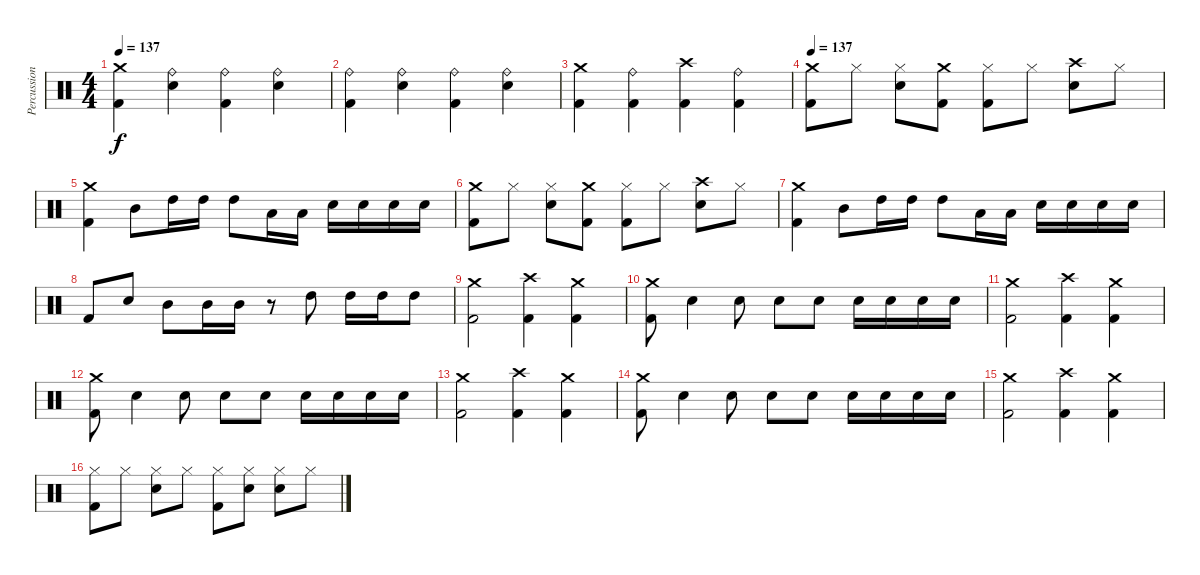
\track ("Percussions" "Percussion") {instrument percussion}
\staff {score}
\articulation defaults
\ts (4 4)
\tempo 137
\clef neutral
\ks c
("Crash medium (hit)" "Kick (hit) 2").4{dy f} ("Ride (bell)" "Electric Snare (hit)").4 ("Ride (bell)" "Kick (hit) 2").4 ("Ride (bell)" "Electric Snare (hit)").4 |
("Ride (bell)" "Kick (hit) 2").4 ("Ride (bell)" "Electric Snare (hit)").4 ("Ride (bell)" "Kick (hit) 2").4 ("Ride (bell)" "Electric Snare (hit)").4 |
("Crash medium (hit)" "Kick (hit) 2").4 ("Ride (bell)" "Kick (hit) 2").4 ("Crash high (hit)" "Kick (hit) 2").4 ("Ride (bell)" "Kick (hit) 2").4 |
\tempo 137
("Crash medium (hit)" "Kick (hit) 2").8 "Hi-Hat (closed)".8 ("Hi-Hat (closed)" "Electric Snare (hit)").8 ("Crash medium (hit)" "Kick (hit) 2").8 ("Hi-Hat (closed)" "Kick (hit) 2").8 "Hi-Hat (closed)".8 ("Crash high (hit)" "Electric Snare (hit)").8 "Hi-Hat (closed)".8 |
("Crash medium (hit)" "Kick (hit) 2").4 "Mid Tom (hit)".8 "High Tom (hit)".16 "High Tom (hit)".16 "High Tom (hit)".8 "Low Tom (hit)".16 "Low Tom (hit)".16 "Electric Snare (hit)".16 "Electric Snare (hit)".16 "Electric Snare (hit)".16 "Electric Snare (hit)".16 |
("Crash medium (hit)" "Kick (hit) 2").8 "Hi-Hat (closed)".8 ("Hi-Hat (closed)" "Electric Snare (hit)").8 ("Crash medium (hit)" "Kick (hit) 2").8 ("Hi-Hat (closed)" "Kick (hit) 2").8 "Hi-Hat (closed)".8 ("Crash high (hit)" "Electric Snare (hit)").8 "Hi-Hat (closed)".8 |
("Crash medium (hit)" "Kick (hit) 2").4 "Mid Tom (hit)".8 "High Tom (hit)".16 "High Tom (hit)".16 "High Tom (hit)".8 "Low Tom (hit)".16 "Low Tom (hit)".16 "Electric Snare (hit)".16 "Electric Snare (hit)".16 "Electric Snare (hit)".16 "Electric Snare (hit)".16 |
"Kick (hit) 2".8 "Electric Snare (hit)".8 "Mid Tom (hit)".8 "Mid Tom (hit)".16 "Mid Tom (hit)".16 r.8 "High Tom (hit)".8 "High Tom (hit)".16 "High Tom (hit)".16 "High Tom (hit)".8 |
("Crash medium (hit)" "Kick (hit) 2").2 ("Crash high (hit)" "Kick (hit) 2").4 ("Crash medium (hit)" "Kick (hit) 2").4 |
("Crash medium (hit)" "Kick (hit) 2").8 "Electric Snare (hit)".4 "Electric Snare (hit)".8 "Electric Snare (hit)".8 "Electric Snare (hit)".8 "Electric Snare (hit)".16 "Electric Snare (hit)".16 "Electric Snare (hit)".16 "Electric Snare (hit)".16 |
("Crash medium (hit)" "Kick (hit) 2").2 ("Crash high (hit)" "Kick (hit) 2").4 ("Crash medium (hit)" "Kick (hit) 2").4 |
("Crash medium (hit)" "Kick (hit) 2").8 "Electric Snare (hit)".4 "Electric Snare (hit)".8 "Electric Snare (hit)".8 "Electric Snare (hit)".8 "Electric Snare (hit)".16 "Electric Snare (hit)".16 "Electric Snare (hit)".16 "Electric Snare (hit)".16 |
("Crash medium (hit)" "Kick (hit) 2").2 ("Crash high (hit)" "Kick (hit) 2").4 ("Crash medium (hit)" "Kick (hit) 2").4 |
("Crash medium (hit)" "Kick (hit) 2").8 "Electric Snare (hit)".4 "Electric Snare (hit)".8 "Electric Snare (hit)".8 "Electric Snare (hit)".8 "Electric Snare (hit)".16 "Electric Snare (hit)".16 "Electric Snare (hit)".16 "Electric Snare (hit)".16 |
("Crash medium (hit)" "Kick (hit) 2").2 ("Crash high (hit)" "Kick (hit) 2").4 ("Crash medium (hit)" "Kick (hit) 2").4 |
("Hi-Hat (closed)" "Kick (hit) 2").8 "Hi-Hat (closed)".8 ("Hi-Hat (closed)" "Electric Snare (hit)").8 "Hi-Hat (closed)".8 ("Hi-Hat (closed)" "Kick (hit) 2").8 ("Hi-Hat (closed)" "Electric Snare (hit)").8 ("Hi-Hat (closed)" "Electric Snare (hit)").8 "Hi-Hat (closed)".8
